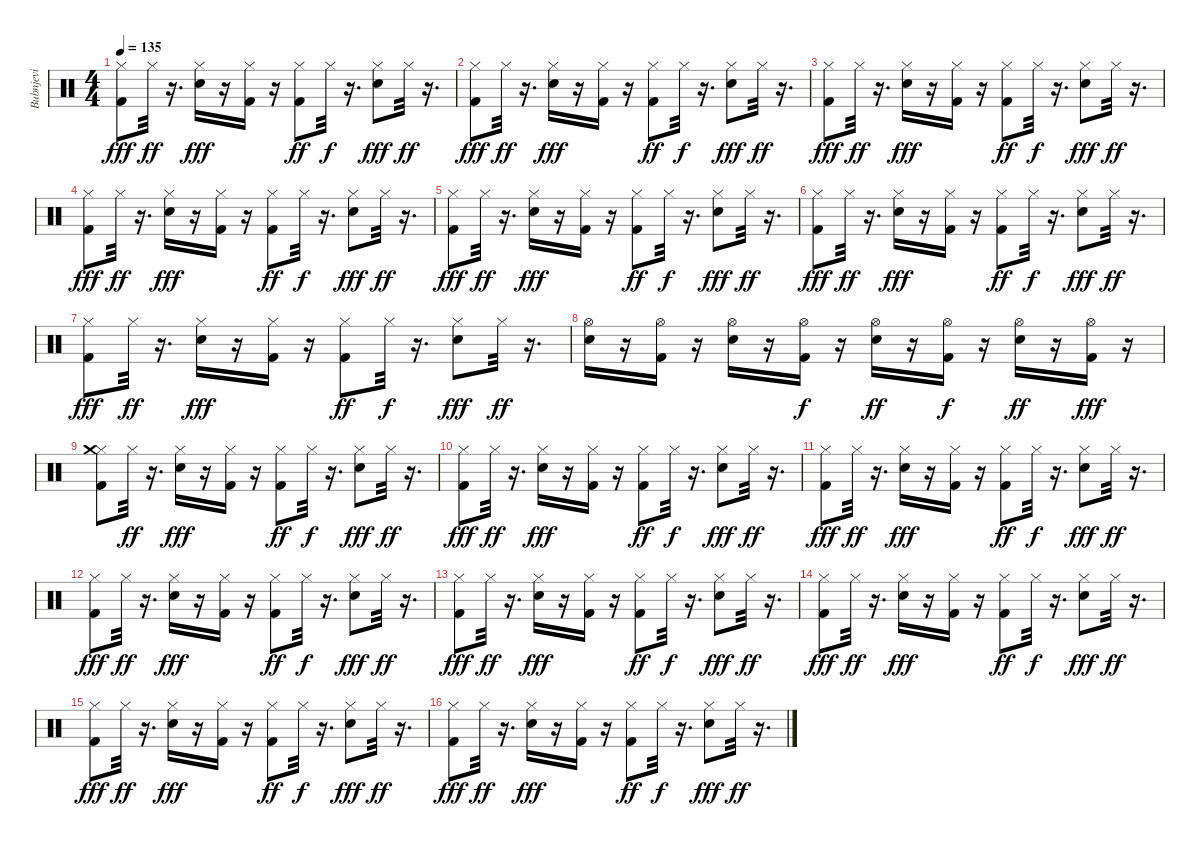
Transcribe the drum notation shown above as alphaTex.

\track ("Bubnjevi" "Bubnjevi") {instrument percussion}
\staff {score}
\articulation defaults
\ts (4 4)
\tempo 135
\clef neutral
\ks c
("Kick (hit) 2" "Hi-Hat (closed)").8{dy fff} "Hi-Hat (closed)".32{dy ff} r.16{d} ("Electric Snare (hit)" "Hi-Hat (closed)").16{dy fff} r.16 ("Kick (hit) 2" "Hi-Hat (closed)").16 r.16 ("Kick (hit) 2" "Hi-Hat (closed)").8{dy ff} "Hi-Hat (closed)".32{dy f} r.16{d} ("Electric Snare (hit)" "Hi-Hat (closed)").8{dy fff} "Hi-Hat (closed)".32{dy ff} r.16{d} |
("Kick (hit) 2" "Hi-Hat (closed)").8{dy fff} "Hi-Hat (closed)".32{dy ff} r.16{d} ("Electric Snare (hit)" "Hi-Hat (closed)").16{dy fff} r.16 ("Kick (hit) 2" "Hi-Hat (closed)").16 r.16 ("Kick (hit) 2" "Hi-Hat (closed)").8{dy ff} "Hi-Hat (closed)".32{dy f} r.16{d} ("Electric Snare (hit)" "Hi-Hat (closed)").8{dy fff} "Hi-Hat (closed)".32{dy ff} r.16{d} |
("Kick (hit) 2" "Hi-Hat (closed)").8{dy fff} "Hi-Hat (closed)".32{dy ff} r.16{d} ("Electric Snare (hit)" "Hi-Hat (closed)").16{dy fff} r.16 ("Kick (hit) 2" "Hi-Hat (closed)").16 r.16 ("Kick (hit) 2" "Hi-Hat (closed)").8{dy ff} "Hi-Hat (closed)".32{dy f} r.16{d} ("Electric Snare (hit)" "Hi-Hat (closed)").8{dy fff} "Hi-Hat (closed)".32{dy ff} r.16{d} |
("Kick (hit) 2" "Hi-Hat (closed)").8{dy fff} "Hi-Hat (closed)".32{dy ff} r.16{d} ("Electric Snare (hit)" "Hi-Hat (closed)").16{dy fff} r.16 ("Kick (hit) 2" "Hi-Hat (closed)").16 r.16 ("Kick (hit) 2" "Hi-Hat (closed)").8{dy ff} "Hi-Hat (closed)".32{dy f} r.16{d} ("Electric Snare (hit)" "Hi-Hat (closed)").8{dy fff} "Hi-Hat (closed)".32{dy ff} r.16{d} |
("Kick (hit) 2" "Hi-Hat (closed)").8{dy fff} "Hi-Hat (closed)".32{dy ff} r.16{d} ("Electric Snare (hit)" "Hi-Hat (closed)").16{dy fff} r.16 ("Kick (hit) 2" "Hi-Hat (closed)").16 r.16 ("Kick (hit) 2" "Hi-Hat (closed)").8{dy ff} "Hi-Hat (closed)".32{dy f} r.16{d} ("Electric Snare (hit)" "Hi-Hat (closed)").8{dy fff} "Hi-Hat (closed)".32{dy ff} r.16{d} |
("Kick (hit) 2" "Hi-Hat (closed)").8{dy fff} "Hi-Hat (closed)".32{dy ff} r.16{d} ("Electric Snare (hit)" "Hi-Hat (closed)").16{dy fff} r.16 ("Kick (hit) 2" "Hi-Hat (closed)").16 r.16 ("Kick (hit) 2" "Hi-Hat (closed)").8{dy ff} "Hi-Hat (closed)".32{dy f} r.16{d} ("Electric Snare (hit)" "Hi-Hat (closed)").8{dy fff} "Hi-Hat (closed)".32{dy ff} r.16{d} |
("Kick (hit) 2" "Hi-Hat (closed)").8{dy fff} "Hi-Hat (closed)".32{dy ff} r.16{d} ("Electric Snare (hit)" "Hi-Hat (closed)").16{dy fff} r.16 ("Kick (hit) 2" "Hi-Hat (closed)").16 r.16 ("Kick (hit) 2" "Hi-Hat (closed)").8{dy ff} "Hi-Hat (closed)".32{dy f} r.16{d} ("Electric Snare (hit)" "Hi-Hat (closed)").8{dy fff} "Hi-Hat (closed)".32{dy ff} r.16{d} |
("Hi-Hat (open)" "Electric Snare (hit)").16 r.16 ("Hi-Hat (open)" "Kick (hit) 2").16 r.16 ("Hi-Hat (open)" "Electric Snare (hit)").16 r.16 ("Hi-Hat (open)" "Kick (hit) 2").16{dy f} r.16 ("Hi-Hat (open)" "Electric Snare (hit)").16{dy ff} r.16 ("Hi-Hat (open)" "Kick (hit) 2").16{dy f} r.16 ("Hi-Hat (open)" "Electric Snare (hit)").16{dy ff} r.16 ("Hi-Hat (open)" "Kick (hit) 2").16{dy fff} r.16 |
("Kick (hit) 2" "Hi-Hat (closed)" "Crash medium (hit)").8 "Hi-Hat (closed)".32{dy ff} r.16{d} ("Electric Snare (hit)" "Hi-Hat (closed)").16{dy fff} r.16 ("Kick (hit) 2" "Hi-Hat (closed)").16 r.16 ("Kick (hit) 2" "Hi-Hat (closed)").8{dy ff} "Hi-Hat (closed)".32{dy f} r.16{d} ("Electric Snare (hit)" "Hi-Hat (closed)").8{dy fff} "Hi-Hat (closed)".32{dy ff} r.16{d} |
("Kick (hit) 2" "Hi-Hat (closed)").8{dy fff} "Hi-Hat (closed)".32{dy ff} r.16{d} ("Electric Snare (hit)" "Hi-Hat (closed)").16{dy fff} r.16 ("Kick (hit) 2" "Hi-Hat (closed)").16 r.16 ("Kick (hit) 2" "Hi-Hat (closed)").8{dy ff} "Hi-Hat (closed)".32{dy f} r.16{d} ("Electric Snare (hit)" "Hi-Hat (closed)").8{dy fff} "Hi-Hat (closed)".32{dy ff} r.16{d} |
("Kick (hit) 2" "Hi-Hat (closed)").8{dy fff} "Hi-Hat (closed)".32{dy ff} r.16{d} ("Electric Snare (hit)" "Hi-Hat (closed)").16{dy fff} r.16 ("Kick (hit) 2" "Hi-Hat (closed)").16 r.16 ("Kick (hit) 2" "Hi-Hat (closed)").8{dy ff} "Hi-Hat (closed)".32{dy f} r.16{d} ("Electric Snare (hit)" "Hi-Hat (closed)").8{dy fff} "Hi-Hat (closed)".32{dy ff} r.16{d} |
("Kick (hit) 2" "Hi-Hat (closed)").8{dy fff} "Hi-Hat (closed)".32{dy ff} r.16{d} ("Electric Snare (hit)" "Hi-Hat (closed)").16{dy fff} r.16 ("Kick (hit) 2" "Hi-Hat (closed)").16 r.16 ("Kick (hit) 2" "Hi-Hat (closed)").8{dy ff} "Hi-Hat (closed)".32{dy f} r.16{d} ("Electric Snare (hit)" "Hi-Hat (closed)").8{dy fff} "Hi-Hat (closed)".32{dy ff} r.16{d} |
("Kick (hit) 2" "Hi-Hat (closed)").8{dy fff} "Hi-Hat (closed)".32{dy ff} r.16{d} ("Electric Snare (hit)" "Hi-Hat (closed)").16{dy fff} r.16 ("Kick (hit) 2" "Hi-Hat (closed)").16 r.16 ("Kick (hit) 2" "Hi-Hat (closed)").8{dy ff} "Hi-Hat (closed)".32{dy f} r.16{d} ("Electric Snare (hit)" "Hi-Hat (closed)").8{dy fff} "Hi-Hat (closed)".32{dy ff} r.16{d} |
("Kick (hit) 2" "Hi-Hat (closed)").8{dy fff} "Hi-Hat (closed)".32{dy ff} r.16{d} ("Electric Snare (hit)" "Hi-Hat (closed)").16{dy fff} r.16 ("Kick (hit) 2" "Hi-Hat (closed)").16 r.16 ("Kick (hit) 2" "Hi-Hat (closed)").8{dy ff} "Hi-Hat (closed)".32{dy f} r.16{d} ("Electric Snare (hit)" "Hi-Hat (closed)").8{dy fff} "Hi-Hat (closed)".32{dy ff} r.16{d} |
("Kick (hit) 2" "Hi-Hat (closed)").8{dy fff} "Hi-Hat (closed)".32{dy ff} r.16{d} ("Electric Snare (hit)" "Hi-Hat (closed)").16{dy fff} r.16 ("Kick (hit) 2" "Hi-Hat (closed)").16 r.16 ("Kick (hit) 2" "Hi-Hat (closed)").8{dy ff} "Hi-Hat (closed)".32{dy f} r.16{d} ("Electric Snare (hit)" "Hi-Hat (closed)").8{dy fff} "Hi-Hat (closed)".32{dy ff} r.16{d} |
("Kick (hit) 2" "Hi-Hat (closed)").8{dy fff} "Hi-Hat (closed)".32{dy ff} r.16{d} ("Electric Snare (hit)" "Hi-Hat (closed)").16{dy fff} r.16 ("Kick (hit) 2" "Hi-Hat (closed)").16 r.16 ("Kick (hit) 2" "Hi-Hat (closed)").8{dy ff} "Hi-Hat (closed)".32{dy f} r.16{d} ("Electric Snare (hit)" "Hi-Hat (closed)").8{dy fff} "Hi-Hat (closed)".32{dy ff} r.16{d}
